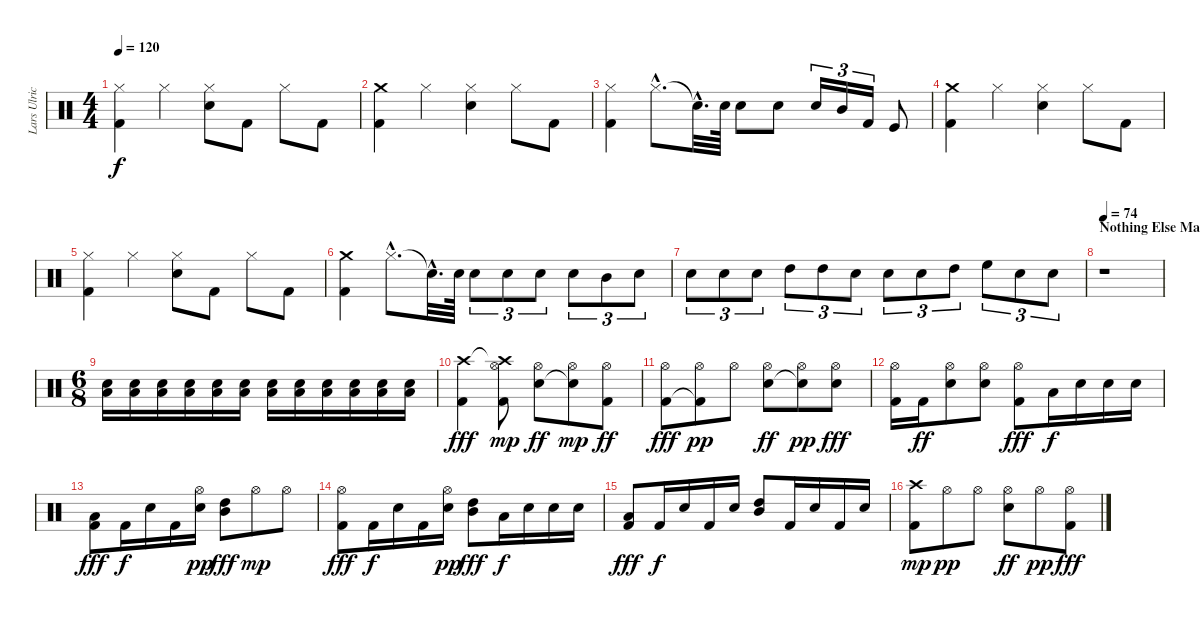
\track ("Lars Ulrich (Drums)" "Lars Ulric") {instrument percussion}
\staff {score}
\articulation defaults
\ts (4 4)
\tempo 120
\clef neutral
\ks c
("Kick (hit) 2" "Hi-Hat (closed)").4{dy f} "Hi-Hat (closed)".4 ("Snare (hit) 2" "Hi-Hat (closed)").8 "Kick (hit) 2".8 "Hi-Hat (closed)".8 "Kick (hit) 2".8 |
("Kick (hit) 2" "Crash medium (hit)").4 "Hi-Hat (closed)".4 ("Snare (hit) 2" "Hi-Hat (closed)").4 "Hi-Hat (closed)".8 "Kick (hit) 2".8 |
("Hi-Hat (closed)" "Kick (hit) 2").4 "Hi-Hat (closed)"{hac}.8{d} "Snare (hit)"{hac t}.32{d} "Snare (hit) 2".64 "Snare (hit) 2".8 "Snare (hit) 2".8 "Snare (hit) 2".16{tu (3 2)} "Mid Tom (hit)".16{tu (3 2)} "Kick (hit) 2".16{tu (3 2)} "Kick (hit)".8 |
("Kick (hit) 2" "Crash medium (hit)").4 "Hi-Hat (closed)".4 ("Snare (hit) 2" "Hi-Hat (closed)").4 "Hi-Hat (closed)".8 "Kick (hit) 2".8 |
("Kick (hit) 2" "Hi-Hat (closed)").4 "Hi-Hat (closed)".4 ("Snare (hit) 2" "Hi-Hat (closed)").8 "Kick (hit) 2".8 "Hi-Hat (closed)".8 "Kick (hit) 2".8 |
("Kick (hit) 2" "Crash medium (hit)").4 "Hi-Hat (closed)"{hac}.8{d} "Snare (hit)"{hac t}.32{d} "Snare (hit) 2".64 "Snare (hit) 2".8{tu (3 2)} "Snare (hit) 2".8{tu (3 2)} "Snare (hit) 2".8{tu (3 2)} "Snare (hit) 2".8{tu (3 2)} "Mid Tom (hit)".8{tu (3 2)} "Snare (hit) 2".8{tu (3 2)} |
"Snare (hit) 2".8{tu (3 2)} "Snare (hit) 2".8{tu (3 2)} "Snare (hit) 2".8{tu (3 2)} "High Tom (hit)".8{tu (3 2)} "High Tom (hit)".8{tu (3 2)} "Snare (hit) 2".8{tu (3 2)} "Snare (hit) 2".8{tu (3 2)} "Snare (hit) 2".8{tu (3 2)} "High Tom (hit)".8{tu (3 2)} "High Floor Tom (hit)".8{tu (3 2)} "Snare (hit) 2".8{tu (3 2)} "Snare (hit) 2".8{tu (3 2)} |
\section ("" "Nothing Else Matters - Easy Solo (Tempo 74)")
\tempo 74
r.1 |
\ts (6 8)
("Snare (hit) 2" "Low Tom (hit)").16 ("Snare (hit) 2" "Low Tom (hit)").16 ("Snare (hit) 2" "Low Tom (hit)").16 ("Snare (hit) 2" "Low Tom (hit)").16 ("Snare (hit) 2" "Low Tom (hit)").16 ("Snare (hit) 2" "Low Tom (hit)").16 ("Snare (hit) 2" "Low Tom (hit)").16 ("Snare (hit) 2" "Low Tom (hit)").16 ("Snare (hit) 2" "Low Tom (hit)").16 ("Snare (hit) 2" "Low Tom (hit)").16 ("Snare (hit) 2" "Low Tom (hit)").16 ("Snare (hit) 2" "Low Tom (hit)").16 |
("Crash high (hit)" "Kick (hit) 2").4{dy fff} ("Crash high (hit)"{t} "Hi-Hat (open)" "Kick (hit) 2").8{dy mp} ("Hi-Hat (open)" "Snare (hit) 2").8{dy ff} ("Hi-Hat (open)" "Snare (hit) 2"{t}).8{dy mp} ("Hi-Hat (open)" "Kick (hit) 2").8{dy ff} |
("Hi-Hat (open)" "Kick (hit) 2").8{dy fff} ("Hi-Hat (open)" "Kick (hit) 2"{t}).8{dy pp} "Hi-Hat (open)".8 ("Hi-Hat (open)" "Snare (hit) 2").8{dy ff} ("Hi-Hat (open)" "Snare (hit) 2"{t}).8{dy pp} ("Hi-Hat (open)" "Snare (hit) 2").8{dy fff} |
("Hi-Hat (open)" "Kick (hit) 2").16 "Kick (hit) 2".16{dy ff} ("Hi-Hat (open)" "Snare (hit) 2").8 ("Hi-Hat (open)" "Snare (hit) 2").8 ("Hi-Hat (open)" "Kick (hit) 2").8{dy fff} "Low Tom (hit)".16{dy f} "Snare (hit) 2".16 "Snare (hit) 2".16 "Snare (hit) 2".16 |
("Kick (hit) 2" "Low Tom (hit)").8{dy fff} "Kick (hit) 2".16{dy f} "Snare (hit) 2".16 "Kick (hit) 2".16 ("Snare (hit) 2" "Hi-Hat (open)").16{dy pp} ("Mid Tom (hit)" "High Tom (hit)").8{dy fff} "Hi-Hat (open)".8{dy mp} "Hi-Hat (open)".8 |
("Hi-Hat (open)" "Kick (hit) 2").8{dy fff} "Kick (hit) 2".16{dy f} "Snare (hit) 2".16 "Kick (hit) 2".16 ("Snare (hit) 2" "Hi-Hat (open)").16{dy pp} ("Mid Tom (hit)" "High Tom (hit)").8{dy fff} "Low Tom (hit)".16{dy f} "Snare (hit) 2".16 "Snare (hit) 2".16 "Snare (hit) 2".16 |
("Kick (hit) 2" "Low Tom (hit)").8{dy fff} "Kick (hit) 2".16{dy f} "Snare (hit) 2".16 "Kick (hit) 2".16 "Snare (hit) 2".16 ("Mid Tom (hit)" "High Tom (hit)").8 "Kick (hit) 2".16 "Snare (hit) 2".16 "Kick (hit) 2".16 "Snare (hit) 2".16 |
("Kick (hit) 2" "Crash high (hit)").8{dy mp} "Hi-Hat (open)".8{dy pp} "Hi-Hat (open)".8 ("Hi-Hat (open)" "Snare (hit) 2").8{dy ff} "Hi-Hat (open)".8{dy pp} ("Hi-Hat (open)" "Kick (hit) 2").8{dy fff}
